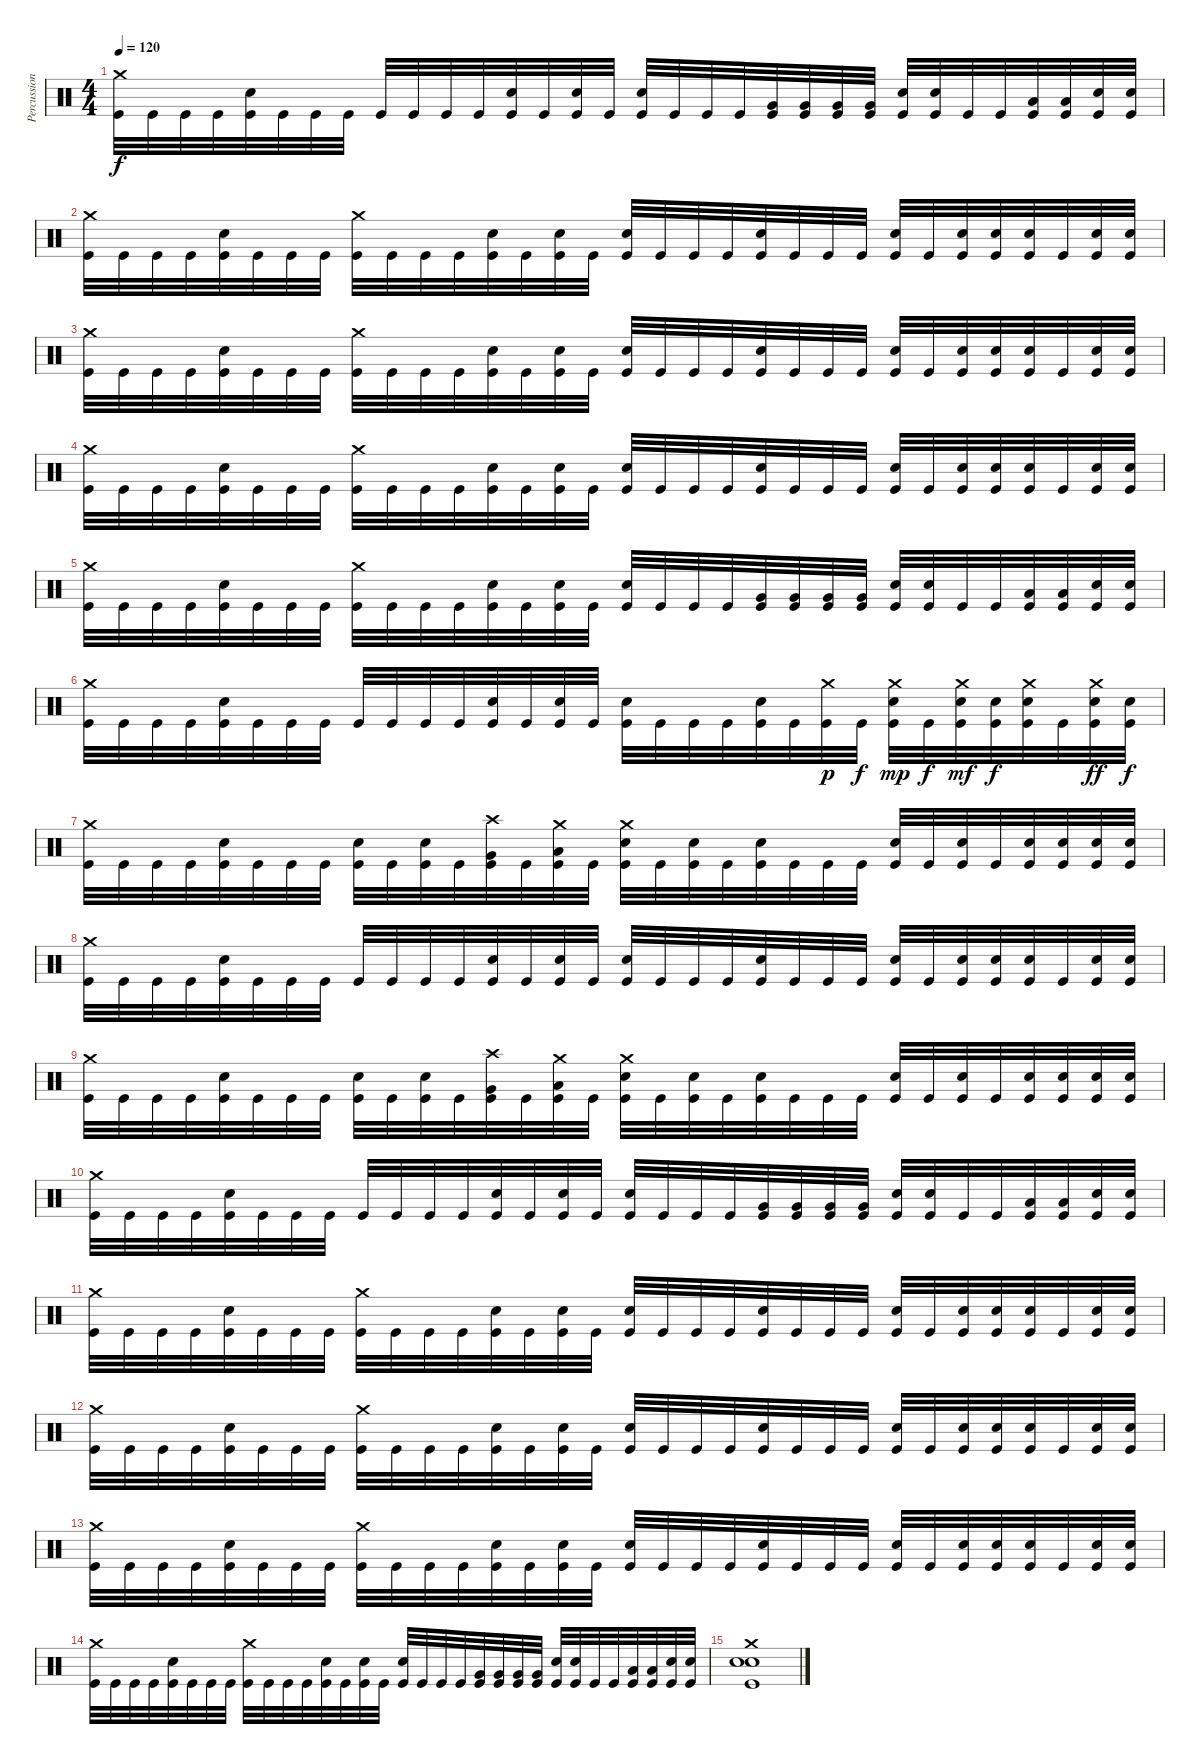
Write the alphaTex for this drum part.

\track ("Percussion" "Percussion") {instrument percussion}
\staff {score}
\articulation defaults
\ts (4 4)
\tempo 120
\clef neutral
\ks c
("Crash medium (hit)" "Kick (hit)").32{dy f} "Kick (hit)".32 "Kick (hit)".32 "Kick (hit)".32 ("Electric Snare (hit)" "Kick (hit)").32 "Kick (hit)".32 "Kick (hit)".32 "Kick (hit)".32 "Kick (hit)".32 "Kick (hit)".32 "Kick (hit)".32 "Kick (hit)".32 ("Electric Snare (hit)" "Kick (hit)").32 "Kick (hit)".32 ("Electric Snare (hit)" "Kick (hit)").32 "Kick (hit)".32 ("Electric Snare (hit)" "Kick (hit)").32 "Kick (hit)".32 "Kick (hit)".32 "Kick (hit)".32 ("Very Low Tom (hit)" "Kick (hit)").32 ("Very Low Tom (hit)" "Kick (hit)").32 ("Very Low Tom (hit)" "Kick (hit)").32 ("Very Low Tom (hit)" "Kick (hit)").32 ("Snare (hit) 2" "Kick (hit)").32 ("Snare (hit) 2" "Kick (hit)").32 "Kick (hit)".32 "Kick (hit)".32 ("Low Floor Tom (hit)" "Kick (hit)").32 ("Low Floor Tom (hit)" "Kick (hit)").32 ("Electric Snare (hit)" "Kick (hit)").32 ("Electric Snare (hit)" "Kick (hit)").32 |
("Crash medium (hit)" "Kick (hit)").32 "Kick (hit)".32 "Kick (hit)".32 "Kick (hit)".32 ("Electric Snare (hit)" "Kick (hit)").32 "Kick (hit)".32 "Kick (hit)".32 "Kick (hit)".32 ("Crash medium (hit)" "Kick (hit)").32 "Kick (hit)".32 "Kick (hit)".32 "Kick (hit)".32 ("Electric Snare (hit)" "Kick (hit)").32 "Kick (hit)".32 ("Electric Snare (hit)" "Kick (hit)").32 "Kick (hit)".32 ("Electric Snare (hit)" "Kick (hit)").32 "Kick (hit)".32 "Kick (hit)".32 "Kick (hit)".32 ("Electric Snare (hit)" "Kick (hit)").32 "Kick (hit)".32 "Kick (hit)".32 "Kick (hit)".32 ("Electric Snare (hit)" "Kick (hit)").32 "Kick (hit)".32 ("Electric Snare (hit)" "Kick (hit)").32 ("Electric Snare (hit)" "Kick (hit)").32 ("Electric Snare (hit)" "Kick (hit)").32 "Kick (hit)".32 ("Electric Snare (hit)" "Kick (hit)").32 ("Electric Snare (hit)" "Kick (hit)").32 |
("Crash medium (hit)" "Kick (hit)").32 "Kick (hit)".32 "Kick (hit)".32 "Kick (hit)".32 ("Electric Snare (hit)" "Kick (hit)").32 "Kick (hit)".32 "Kick (hit)".32 "Kick (hit)".32 ("Crash medium (hit)" "Kick (hit)").32 "Kick (hit)".32 "Kick (hit)".32 "Kick (hit)".32 ("Electric Snare (hit)" "Kick (hit)").32 "Kick (hit)".32 ("Electric Snare (hit)" "Kick (hit)").32 "Kick (hit)".32 ("Electric Snare (hit)" "Kick (hit)").32 "Kick (hit)".32 "Kick (hit)".32 "Kick (hit)".32 ("Electric Snare (hit)" "Kick (hit)").32 "Kick (hit)".32 "Kick (hit)".32 "Kick (hit)".32 ("Electric Snare (hit)" "Kick (hit)").32 "Kick (hit)".32 ("Electric Snare (hit)" "Kick (hit)").32 ("Electric Snare (hit)" "Kick (hit)").32 ("Electric Snare (hit)" "Kick (hit)").32 "Kick (hit)".32 ("Electric Snare (hit)" "Kick (hit)").32 ("Electric Snare (hit)" "Kick (hit)").32 |
("Crash medium (hit)" "Kick (hit)").32 "Kick (hit)".32 "Kick (hit)".32 "Kick (hit)".32 ("Electric Snare (hit)" "Kick (hit)").32 "Kick (hit)".32 "Kick (hit)".32 "Kick (hit)".32 ("Crash medium (hit)" "Kick (hit)").32 "Kick (hit)".32 "Kick (hit)".32 "Kick (hit)".32 ("Electric Snare (hit)" "Kick (hit)").32 "Kick (hit)".32 ("Electric Snare (hit)" "Kick (hit)").32 "Kick (hit)".32 ("Electric Snare (hit)" "Kick (hit)").32 "Kick (hit)".32 "Kick (hit)".32 "Kick (hit)".32 ("Electric Snare (hit)" "Kick (hit)").32 "Kick (hit)".32 "Kick (hit)".32 "Kick (hit)".32 ("Electric Snare (hit)" "Kick (hit)").32 "Kick (hit)".32 ("Electric Snare (hit)" "Kick (hit)").32 ("Electric Snare (hit)" "Kick (hit)").32 ("Electric Snare (hit)" "Kick (hit)").32 "Kick (hit)".32 ("Electric Snare (hit)" "Kick (hit)").32 ("Electric Snare (hit)" "Kick (hit)").32 |
("Crash medium (hit)" "Kick (hit)").32 "Kick (hit)".32 "Kick (hit)".32 "Kick (hit)".32 ("Electric Snare (hit)" "Kick (hit)").32 "Kick (hit)".32 "Kick (hit)".32 "Kick (hit)".32 ("Crash medium (hit)" "Kick (hit)").32 "Kick (hit)".32 "Kick (hit)".32 "Kick (hit)".32 ("Electric Snare (hit)" "Kick (hit)").32 "Kick (hit)".32 ("Electric Snare (hit)" "Kick (hit)").32 "Kick (hit)".32 ("Electric Snare (hit)" "Kick (hit)").32 "Kick (hit)".32 "Kick (hit)".32 "Kick (hit)".32 ("Very Low Tom (hit)" "Kick (hit)").32 ("Very Low Tom (hit)" "Kick (hit)").32 ("Very Low Tom (hit)" "Kick (hit)").32 ("Very Low Tom (hit)" "Kick (hit)").32 ("Snare (hit) 2" "Kick (hit)").32 ("Snare (hit) 2" "Kick (hit)").32 "Kick (hit)".32 "Kick (hit)".32 ("Low Floor Tom (hit)" "Kick (hit)").32 ("Low Floor Tom (hit)" "Kick (hit)").32 ("Electric Snare (hit)" "Kick (hit)").32 ("Electric Snare (hit)" "Kick (hit)").32 |
("Crash medium (hit)" "Kick (hit)").32 "Kick (hit)".32 "Kick (hit)".32 "Kick (hit)".32 ("Electric Snare (hit)" "Kick (hit)").32 "Kick (hit)".32 "Kick (hit)".32 "Kick (hit)".32 "Kick (hit)".32 "Kick (hit)".32 "Kick (hit)".32 "Kick (hit)".32 ("Electric Snare (hit)" "Kick (hit)").32 "Kick (hit)".32 ("Electric Snare (hit)" "Kick (hit)").32 "Kick (hit)".32 ("Electric Snare (hit)" "Kick (hit)").32 "Kick (hit)".32 "Kick (hit)".32 "Kick (hit)".32 ("Electric Snare (hit)" "Kick (hit)").32 "Kick (hit)".32 ("Crash medium (hit)" "Kick (hit)").32{dy p} "Kick (hit)".32{dy f} ("Crash medium (hit)" "Electric Snare (hit)" "Kick (hit)").32{dy mp} "Kick (hit)".32{dy f} ("Crash medium (hit)" "Electric Snare (hit)" "Kick (hit)").32{dy mf} ("Electric Snare (hit)" "Kick (hit)").32{dy f} ("Crash medium (hit)" "Electric Snare (hit)" "Kick (hit)").32 "Kick (hit)".32 ("Crash medium (hit)" "Electric Snare (hit)" "Kick (hit)").32{dy ff} ("Electric Snare (hit)" "Kick (hit)").32{dy f} |
("Crash medium (hit)" "Kick (hit)").32 "Kick (hit)".32 "Kick (hit)".32 "Kick (hit)".32 ("Electric Snare (hit)" "Kick (hit)").32 "Kick (hit)".32 "Kick (hit)".32 "Kick (hit)".32 ("Electric Snare (hit)" "Kick (hit)").32 "Kick (hit)".32 ("Electric Snare (hit)" "Kick (hit)").32 "Kick (hit)".32 ("Crash high (hit)" "Very Low Tom (hit)" "Kick (hit)").32 "Kick (hit)".32 ("Crash medium (hit)" "Low Floor Tom (hit)" "Kick (hit)").32 "Kick (hit)".32 ("Crash medium (hit)" "Electric Snare (hit)" "Kick (hit)").32 "Kick (hit)".32 ("Electric Snare (hit)" "Kick (hit)").32 "Kick (hit)".32 ("Electric Snare (hit)" "Kick (hit)").32 "Kick (hit)".32 "Kick (hit)".32 "Kick (hit)".32 ("Electric Snare (hit)" "Kick (hit)").32 "Kick (hit)".32 ("Electric Snare (hit)" "Kick (hit)").32 "Kick (hit)".32 ("Electric Snare (hit)" "Kick (hit)").32 ("Electric Snare (hit)" "Kick (hit)").32 ("Electric Snare (hit)" "Kick (hit)").32 ("Electric Snare (hit)" "Kick (hit)").32 |
("Crash medium (hit)" "Kick (hit)").32 "Kick (hit)".32 "Kick (hit)".32 "Kick (hit)".32 ("Electric Snare (hit)" "Kick (hit)").32 "Kick (hit)".32 "Kick (hit)".32 "Kick (hit)".32 "Kick (hit)".32 "Kick (hit)".32 "Kick (hit)".32 "Kick (hit)".32 ("Electric Snare (hit)" "Kick (hit)").32 "Kick (hit)".32 ("Electric Snare (hit)" "Kick (hit)").32 "Kick (hit)".32 ("Electric Snare (hit)" "Kick (hit)").32 "Kick (hit)".32 "Kick (hit)".32 "Kick (hit)".32 ("Electric Snare (hit)" "Kick (hit)").32 "Kick (hit)".32 "Kick (hit)".32 "Kick (hit)".32 ("Electric Snare (hit)" "Kick (hit)").32 "Kick (hit)".32 ("Electric Snare (hit)" "Kick (hit)").32 ("Electric Snare (hit)" "Kick (hit)").32 ("Electric Snare (hit)" "Kick (hit)").32 "Kick (hit)".32 ("Electric Snare (hit)" "Kick (hit)").32 ("Electric Snare (hit)" "Kick (hit)").32 |
("Crash medium (hit)" "Kick (hit)").32 "Kick (hit)".32 "Kick (hit)".32 "Kick (hit)".32 ("Electric Snare (hit)" "Kick (hit)").32 "Kick (hit)".32 "Kick (hit)".32 "Kick (hit)".32 ("Electric Snare (hit)" "Kick (hit)").32 "Kick (hit)".32 ("Electric Snare (hit)" "Kick (hit)").32 "Kick (hit)".32 ("Crash high (hit)" "Very Low Tom (hit)" "Kick (hit)").32 "Kick (hit)".32 ("Crash medium (hit)" "Low Floor Tom (hit)" "Kick (hit)").32 "Kick (hit)".32 ("Crash medium (hit)" "Electric Snare (hit)" "Kick (hit)").32 "Kick (hit)".32 ("Electric Snare (hit)" "Kick (hit)").32 "Kick (hit)".32 ("Electric Snare (hit)" "Kick (hit)").32 "Kick (hit)".32 "Kick (hit)".32 "Kick (hit)".32 ("Electric Snare (hit)" "Kick (hit)").32 "Kick (hit)".32 ("Electric Snare (hit)" "Kick (hit)").32 "Kick (hit)".32 ("Electric Snare (hit)" "Kick (hit)").32 ("Electric Snare (hit)" "Kick (hit)").32 ("Electric Snare (hit)" "Kick (hit)").32 ("Electric Snare (hit)" "Kick (hit)").32 |
("Crash medium (hit)" "Kick (hit)").32 "Kick (hit)".32 "Kick (hit)".32 "Kick (hit)".32 ("Electric Snare (hit)" "Kick (hit)").32 "Kick (hit)".32 "Kick (hit)".32 "Kick (hit)".32 "Kick (hit)".32 "Kick (hit)".32 "Kick (hit)".32 "Kick (hit)".32 ("Electric Snare (hit)" "Kick (hit)").32 "Kick (hit)".32 ("Electric Snare (hit)" "Kick (hit)").32 "Kick (hit)".32 ("Electric Snare (hit)" "Kick (hit)").32 "Kick (hit)".32 "Kick (hit)".32 "Kick (hit)".32 ("Very Low Tom (hit)" "Kick (hit)").32 ("Very Low Tom (hit)" "Kick (hit)").32 ("Very Low Tom (hit)" "Kick (hit)").32 ("Very Low Tom (hit)" "Kick (hit)").32 ("Snare (hit) 2" "Kick (hit)").32 ("Snare (hit) 2" "Kick (hit)").32 "Kick (hit)".32 "Kick (hit)".32 ("Low Floor Tom (hit)" "Kick (hit)").32 ("Low Floor Tom (hit)" "Kick (hit)").32 ("Electric Snare (hit)" "Kick (hit)").32 ("Electric Snare (hit)" "Kick (hit)").32 |
("Crash medium (hit)" "Kick (hit)").32 "Kick (hit)".32 "Kick (hit)".32 "Kick (hit)".32 ("Electric Snare (hit)" "Kick (hit)").32 "Kick (hit)".32 "Kick (hit)".32 "Kick (hit)".32 ("Crash medium (hit)" "Kick (hit)").32 "Kick (hit)".32 "Kick (hit)".32 "Kick (hit)".32 ("Electric Snare (hit)" "Kick (hit)").32 "Kick (hit)".32 ("Electric Snare (hit)" "Kick (hit)").32 "Kick (hit)".32 ("Electric Snare (hit)" "Kick (hit)").32 "Kick (hit)".32 "Kick (hit)".32 "Kick (hit)".32 ("Electric Snare (hit)" "Kick (hit)").32 "Kick (hit)".32 "Kick (hit)".32 "Kick (hit)".32 ("Electric Snare (hit)" "Kick (hit)").32 "Kick (hit)".32 ("Electric Snare (hit)" "Kick (hit)").32 ("Electric Snare (hit)" "Kick (hit)").32 ("Electric Snare (hit)" "Kick (hit)").32 "Kick (hit)".32 ("Electric Snare (hit)" "Kick (hit)").32 ("Electric Snare (hit)" "Kick (hit)").32 |
("Crash medium (hit)" "Kick (hit)").32 "Kick (hit)".32 "Kick (hit)".32 "Kick (hit)".32 ("Electric Snare (hit)" "Kick (hit)").32 "Kick (hit)".32 "Kick (hit)".32 "Kick (hit)".32 ("Crash medium (hit)" "Kick (hit)").32 "Kick (hit)".32 "Kick (hit)".32 "Kick (hit)".32 ("Electric Snare (hit)" "Kick (hit)").32 "Kick (hit)".32 ("Electric Snare (hit)" "Kick (hit)").32 "Kick (hit)".32 ("Electric Snare (hit)" "Kick (hit)").32 "Kick (hit)".32 "Kick (hit)".32 "Kick (hit)".32 ("Electric Snare (hit)" "Kick (hit)").32 "Kick (hit)".32 "Kick (hit)".32 "Kick (hit)".32 ("Electric Snare (hit)" "Kick (hit)").32 "Kick (hit)".32 ("Electric Snare (hit)" "Kick (hit)").32 ("Electric Snare (hit)" "Kick (hit)").32 ("Electric Snare (hit)" "Kick (hit)").32 "Kick (hit)".32 ("Electric Snare (hit)" "Kick (hit)").32 ("Electric Snare (hit)" "Kick (hit)").32 |
("Crash medium (hit)" "Kick (hit)").32 "Kick (hit)".32 "Kick (hit)".32 "Kick (hit)".32 ("Electric Snare (hit)" "Kick (hit)").32 "Kick (hit)".32 "Kick (hit)".32 "Kick (hit)".32 ("Crash medium (hit)" "Kick (hit)").32 "Kick (hit)".32 "Kick (hit)".32 "Kick (hit)".32 ("Electric Snare (hit)" "Kick (hit)").32 "Kick (hit)".32 ("Electric Snare (hit)" "Kick (hit)").32 "Kick (hit)".32 ("Electric Snare (hit)" "Kick (hit)").32 "Kick (hit)".32 "Kick (hit)".32 "Kick (hit)".32 ("Electric Snare (hit)" "Kick (hit)").32 "Kick (hit)".32 "Kick (hit)".32 "Kick (hit)".32 ("Electric Snare (hit)" "Kick (hit)").32 "Kick (hit)".32 ("Electric Snare (hit)" "Kick (hit)").32 ("Electric Snare (hit)" "Kick (hit)").32 ("Electric Snare (hit)" "Kick (hit)").32 "Kick (hit)".32 ("Electric Snare (hit)" "Kick (hit)").32 ("Electric Snare (hit)" "Kick (hit)").32 |
("Crash medium (hit)" "Kick (hit)").32 "Kick (hit)".32 "Kick (hit)".32 "Kick (hit)".32 ("Electric Snare (hit)" "Kick (hit)").32 "Kick (hit)".32 "Kick (hit)".32 "Kick (hit)".32 ("Crash medium (hit)" "Kick (hit)").32 "Kick (hit)".32 "Kick (hit)".32 "Kick (hit)".32 ("Electric Snare (hit)" "Kick (hit)").32 "Kick (hit)".32 ("Electric Snare (hit)" "Kick (hit)").32 "Kick (hit)".32 ("Electric Snare (hit)" "Kick (hit)").32 "Kick (hit)".32 "Kick (hit)".32 "Kick (hit)".32 ("Very Low Tom (hit)" "Kick (hit)").32 ("Very Low Tom (hit)" "Kick (hit)").32 ("Very Low Tom (hit)" "Kick (hit)").32 ("Very Low Tom (hit)" "Kick (hit)").32 ("Snare (hit) 2" "Kick (hit)").32 ("Snare (hit) 2" "Kick (hit)").32 "Kick (hit)".32 "Kick (hit)".32 ("Low Floor Tom (hit)" "Kick (hit)").32 ("Low Floor Tom (hit)" "Kick (hit)").32 ("Electric Snare (hit)" "Kick (hit)").32 ("Electric Snare (hit)" "Kick (hit)").32 |
("Crash medium (hit)" "Snare (hit) 2" "Kick (hit)" "Electric Snare (hit)").1
